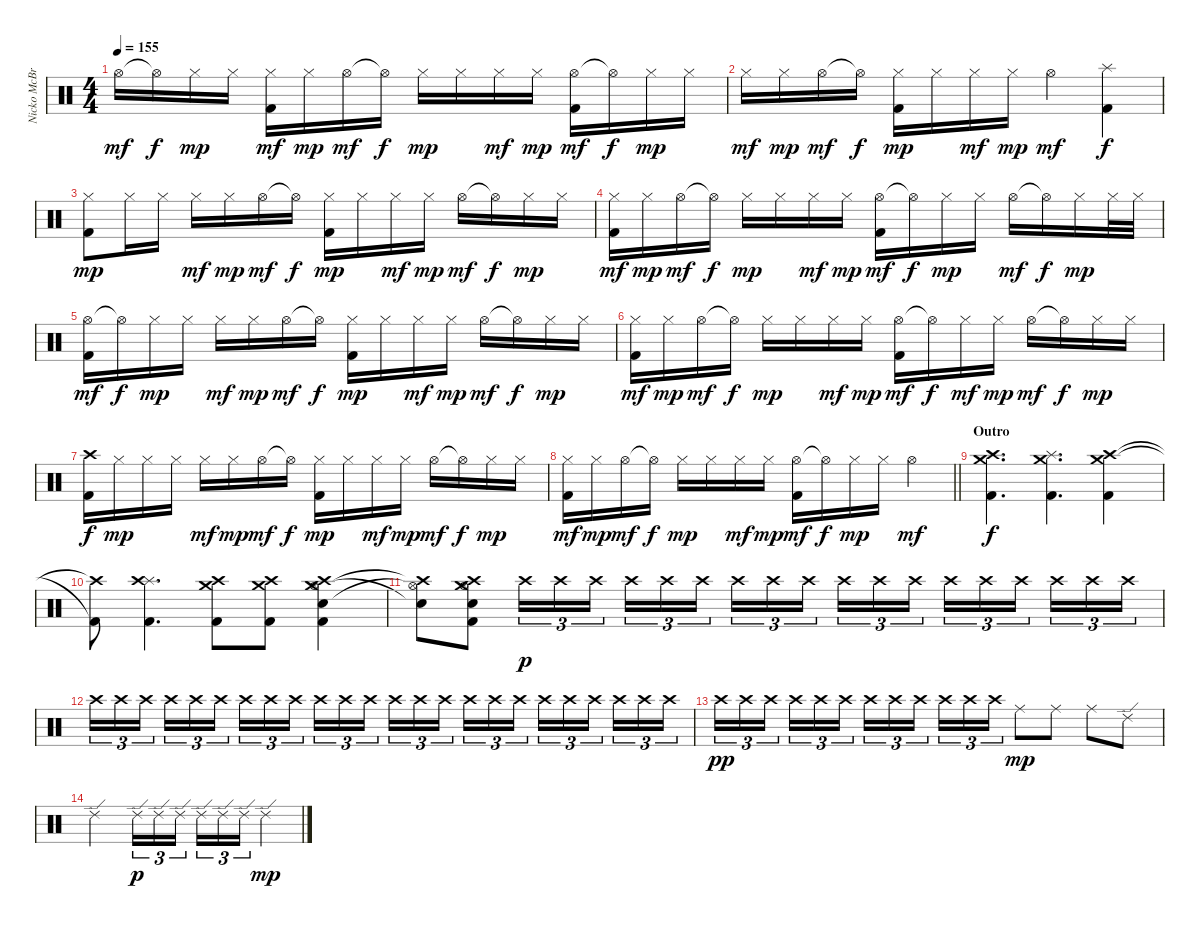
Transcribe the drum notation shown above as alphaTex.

\track ("Nicko McBrain" "Nicko McBr") {instrument percussion}
\staff {score}
\articulation defaults
\ts (4 4)
\tempo 155
\clef neutral
\ks c "Hi-Hat (open)".16{dy mf} "Hi-Hat (open)"{t}.16{dy f} "Hi-Hat (closed)".16{dy mp} "Hi-Hat (closed)".16
("Hi-Hat (closed)" "Kick (hit) 2").16{dy mf} "Hi-Hat (closed)".16{dy mp} "Hi-Hat (open)".16{dy mf} "Hi-Hat (open)"{t}.16{dy f} "Hi-Hat (closed)".16{dy mp} "Hi-Hat (closed)".16 "Hi-Hat (closed)".16{dy mf} "Hi-Hat (closed)".16{dy mp} ("Hi-Hat (open)" "Kick (hit) 2").16{dy mf} "Hi-Hat (open)"{t}.16{dy f} "Hi-Hat (closed)".16{dy mp} "Hi-Hat (closed)".16 |
"Hi-Hat (closed)".16{dy mf} "Hi-Hat (closed)".16{dy mp} "Hi-Hat (open)".16{dy mf} "Hi-Hat (open)"{t}.16{dy f} ("Hi-Hat (closed)" "Kick (hit) 2").16{dy mp} "Hi-Hat (closed)".16 "Hi-Hat (closed)".16{dy mf} "Hi-Hat (closed)".16{dy mp} "Hi-Hat (open)".4{dy mf} ("Splash (hit)" "Kick (hit) 2").4{dy f} |
("Hi-Hat (closed)" "Kick (hit) 2").8{dy mp} "Hi-Hat (closed)".16 "Hi-Hat (closed)".16 "Hi-Hat (closed)".16{dy mf} "Hi-Hat (closed)".16{dy mp} "Hi-Hat (open)".16{dy mf} "Hi-Hat (open)"{t}.16{dy f} ("Hi-Hat (closed)" "Kick (hit) 2").16{dy mp} "Hi-Hat (closed)".16 "Hi-Hat (closed)".16{dy mf} "Hi-Hat (closed)".16{dy mp} "Hi-Hat (open)".16{dy mf} "Hi-Hat (open)"{t}.16{dy f} "Hi-Hat (closed)".16{dy mp} "Hi-Hat (closed)".16 |
("Hi-Hat (closed)" "Kick (hit) 2").16{dy mf} "Hi-Hat (closed)".16{dy mp} "Hi-Hat (open)".16{dy mf} "Hi-Hat (open)"{t}.16{dy f} "Hi-Hat (closed)".16{dy mp} "Hi-Hat (closed)".16 "Hi-Hat (closed)".16{dy mf} "Hi-Hat (closed)".16{dy mp} ("Hi-Hat (open)" "Kick (hit) 2").16{dy mf} "Hi-Hat (open)"{t}.16{dy f} "Hi-Hat (closed)".16{dy mp} "Hi-Hat (closed)".16 "Hi-Hat (open)".16{dy mf} "Hi-Hat (open)"{t}.16{dy f} "Hi-Hat (closed)".16{dy mp} "Hi-Hat (closed)".32 "Hi-Hat (closed)".32 |
("Hi-Hat (open)" "Kick (hit) 2").16{dy mf} "Hi-Hat (open)"{t}.16{dy f} "Hi-Hat (closed)".16{dy mp} "Hi-Hat (closed)".16 "Hi-Hat (closed)".16{dy mf} "Hi-Hat (closed)".16{dy mp} "Hi-Hat (open)".16{dy mf} "Hi-Hat (open)"{t}.16{dy f} ("Hi-Hat (closed)" "Kick (hit) 2").16{dy mp} "Hi-Hat (closed)".16 "Hi-Hat (closed)".16{dy mf} "Hi-Hat (closed)".16{dy mp} "Hi-Hat (open)".16{dy mf} "Hi-Hat (open)"{t}.16{dy f} "Hi-Hat (closed)".16{dy mp} "Hi-Hat (closed)".16 |
("Hi-Hat (closed)" "Kick (hit) 2").16{dy mf} "Hi-Hat (closed)".16{dy mp} "Hi-Hat (open)".16{dy mf} "Hi-Hat (open)"{t}.16{dy f} "Hi-Hat (closed)".16{dy mp} "Hi-Hat (closed)".16 "Hi-Hat (closed)".16{dy mf} "Hi-Hat (closed)".16{dy mp} ("Hi-Hat (open)" "Kick (hit) 2").16{dy mf} "Hi-Hat (open)"{t}.16{dy f} "Hi-Hat (closed)".16{dy mf} "Hi-Hat (closed)".16{dy mp} "Hi-Hat (open)".16{dy mf} "Hi-Hat (open)"{t}.16{dy f} "Hi-Hat (closed)".16{dy mp} "Hi-Hat (closed)".16 |
("Crash high (hit)" "Kick (hit) 2").16{dy f} "Hi-Hat (closed)".16{dy mp} "Hi-Hat (closed)".16 "Hi-Hat (closed)".16 "Hi-Hat (closed)".16{dy mf} "Hi-Hat (closed)".16{dy mp} "Hi-Hat (open)".16{dy mf} "Hi-Hat (open)"{t}.16{dy f} ("Hi-Hat (closed)" "Kick (hit) 2").16{dy mp} "Hi-Hat (closed)".16 "Hi-Hat (closed)".16{dy mf} "Hi-Hat (closed)".16{dy mp} "Hi-Hat (open)".16{dy mf} "Hi-Hat (open)"{t}.16{dy f} "Hi-Hat (closed)".16{dy mp} "Hi-Hat (closed)".16 |
\barLineRight lightlight
("Hi-Hat (closed)" "Kick (hit) 2").16{dy mf} "Hi-Hat (closed)".16{dy mp} "Hi-Hat (open)".16{dy mf} "Hi-Hat (open)"{t}.16{dy f} "Hi-Hat (closed)".16{dy mp} "Hi-Hat (closed)".16 "Hi-Hat (closed)".16{dy mf} "Hi-Hat (closed)".16{dy mp} ("Hi-Hat (open)" "Kick (hit) 2").16{dy mf} "Hi-Hat (open)"{t}.16{dy f} "Hi-Hat (closed)".16{dy mp} "Hi-Hat (closed)".16 "Hi-Hat (open)".4{dy mf} |
\section ("" "Outro")
("Crash medium (hit)" "Crash high (hit)" "Kick (hit) 2").4{d dy f} ("Splash (hit)" "Crash medium (hit)" "Kick (hit) 2").4{d} ("Crash medium (hit)" "Crash high (hit)" "Kick (hit) 2").4 |
("Crash high (hit)"{t} "Kick (hit) 2"{t}).8 ("Splash (hit)" "Crash high (hit)" "Kick (hit) 2").4{d} ("Crash medium (hit)" "Crash high (hit)" "Kick (hit) 2").8 ("Crash medium (hit)" "Crash high (hit)" "Kick (hit) 2").8 ("Hi-Hat (open)" "Snare (hit) 2" "Crash medium (hit)" "Crash high (hit)" "Kick (hit) 2").4 |
("Snare (hit) 2"{t} "Hi-Hat (open)"{t} "Crash high (hit)"{t}).8 ("Hi-Hat (open)" "Snare (hit) 2" "Crash medium (hit)" "Crash high (hit)" "Kick (hit) 2").8 "Crash high (hit)".16{tu (3 2) dy p} "Crash high (hit)".16{tu (3 2)} "Crash high (hit)".16{tu (3 2) beam splitsecondary} "Crash high (hit)".16{tu (3 2)} "Crash high (hit)".16{tu (3 2)} "Crash high (hit)".16{tu (3 2)} "Crash high (hit)".16{tu (3 2)} "Crash high (hit)".16{tu (3 2)} "Crash high (hit)".16{tu (3 2) beam splitsecondary} "Crash high (hit)".16{tu (3 2)} "Crash high (hit)".16{tu (3 2)} "Crash high (hit)".16{tu (3 2)} "Crash high (hit)".16{tu (3 2)} "Crash high (hit)".16{tu (3 2)} "Crash high (hit)".16{tu (3 2) beam splitsecondary} "Crash high (hit)".16{tu (3 2)} "Crash high (hit)".16{tu (3 2)} "Crash high (hit)".16{tu (3 2)} |
"Crash high (hit)".16{tu (3 2)} "Crash high (hit)".16{tu (3 2)} "Crash high (hit)".16{tu (3 2) beam splitsecondary} "Crash high (hit)".16{tu (3 2)} "Crash high (hit)".16{tu (3 2)} "Crash high (hit)".16{tu (3 2)} "Crash high (hit)".16{tu (3 2)} "Crash high (hit)".16{tu (3 2)} "Crash high (hit)".16{tu (3 2) beam splitsecondary} "Crash high (hit)".16{tu (3 2)} "Crash high (hit)".16{tu (3 2)} "Crash high (hit)".16{tu (3 2)} "Crash high (hit)".16{tu (3 2)} "Crash high (hit)".16{tu (3 2)} "Crash high (hit)".16{tu (3 2) beam splitsecondary} "Crash high (hit)".16{tu (3 2)} "Crash high (hit)".16{tu (3 2)} "Crash high (hit)".16{tu (3 2)} "Crash high (hit)".16{tu (3 2)} "Crash high (hit)".16{tu (3 2)} "Crash high (hit)".16{tu (3 2) beam splitsecondary} "Crash high (hit)".16{tu (3 2)} "Crash high (hit)".16{tu (3 2)} "Crash high (hit)".16{tu (3 2)} |
"Crash high (hit)".16{tu (3 2) dy pp} "Crash high (hit)".16{tu (3 2)} "Crash high (hit)".16{tu (3 2) beam splitsecondary} "Crash high (hit)".16{tu (3 2)} "Crash high (hit)".16{tu (3 2)} "Crash high (hit)".16{tu (3 2)} "Crash high (hit)".16{tu (3 2)} "Crash high (hit)".16{tu (3 2)} "Crash high (hit)".16{tu (3 2) beam splitsecondary} "Crash high (hit)".16{tu (3 2)} "Crash high (hit)".16{tu (3 2)} "Crash high (hit)".16{tu (3 2)} "Ride (middle)".8{dy mp} "Ride (middle)".8 "Ride (middle)".8 "Ride (edge) 2".8 |
"Ride (edge) 2".2 "Ride (edge) 2".16{tu (3 2) dy p} "Ride (edge) 2".16{tu (3 2)} "Ride (edge) 2".16{tu (3 2) beam splitsecondary} "Ride (edge) 2".16{tu (3 2)} "Ride (edge) 2".16{tu (3 2)} "Ride (edge) 2".16{tu (3 2)} "Ride (edge) 2".4{dy mp}
